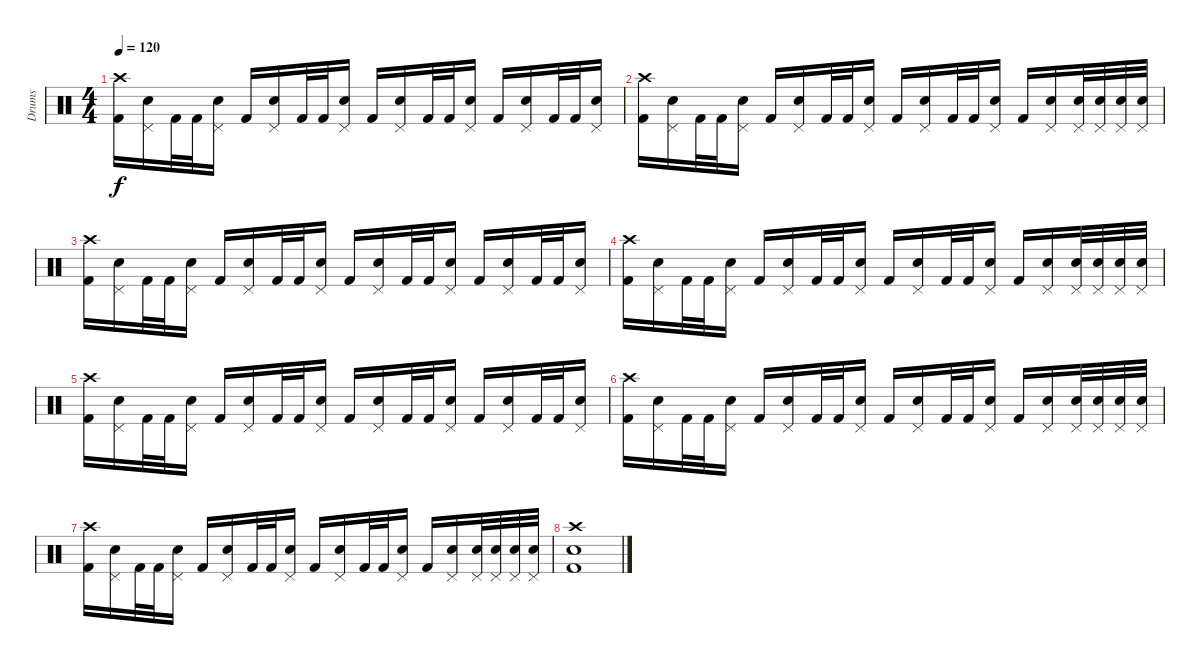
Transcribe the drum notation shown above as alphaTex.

\track ("Drums" "Drums") {instrument percussion}
\staff {score}
\articulation defaults
\ts (4 4)
\tempo 120
\clef neutral
\ks c
("Kick (hit) 2" "Crash high (hit)").16{dy f} ("Electric Snare (hit)" "Pedal Hi-Hat (hit)").16 "Kick (hit) 2".32 "Kick (hit) 2".32 ("Electric Snare (hit)" "Pedal Hi-Hat (hit)").16 "Kick (hit) 2".16 ("Electric Snare (hit)" "Pedal Hi-Hat (hit)").16 "Kick (hit) 2".32 "Kick (hit) 2".32 ("Electric Snare (hit)" "Pedal Hi-Hat (hit)").16 "Kick (hit) 2".16 ("Electric Snare (hit)" "Pedal Hi-Hat (hit)").16 "Kick (hit) 2".32 "Kick (hit) 2".32 ("Electric Snare (hit)" "Pedal Hi-Hat (hit)").16 "Kick (hit) 2".16 ("Electric Snare (hit)" "Pedal Hi-Hat (hit)").16 "Kick (hit) 2".32 "Kick (hit) 2".32 ("Electric Snare (hit)" "Pedal Hi-Hat (hit)").16 |
("Kick (hit) 2" "Crash high (hit)").16 ("Electric Snare (hit)" "Pedal Hi-Hat (hit)").16 "Kick (hit) 2".32 "Kick (hit) 2".32 ("Electric Snare (hit)" "Pedal Hi-Hat (hit)").16 "Kick (hit) 2".16 ("Electric Snare (hit)" "Pedal Hi-Hat (hit)").16 "Kick (hit) 2".32 "Kick (hit) 2".32 ("Electric Snare (hit)" "Pedal Hi-Hat (hit)").16 "Kick (hit) 2".16 ("Electric Snare (hit)" "Pedal Hi-Hat (hit)").16 "Kick (hit) 2".32 "Kick (hit) 2".32 ("Electric Snare (hit)" "Pedal Hi-Hat (hit)").16 "Kick (hit) 2".16 ("Electric Snare (hit)" "Pedal Hi-Hat (hit)").16 ("Electric Snare (hit)" "Pedal Hi-Hat (hit)").32 ("Electric Snare (hit)" "Pedal Hi-Hat (hit)").32 ("Electric Snare (hit)" "Pedal Hi-Hat (hit)").32 ("Electric Snare (hit)" "Pedal Hi-Hat (hit)").32 |
("Kick (hit) 2" "Crash high (hit)").16 ("Electric Snare (hit)" "Pedal Hi-Hat (hit)").16 "Kick (hit) 2".32 "Kick (hit) 2".32 ("Electric Snare (hit)" "Pedal Hi-Hat (hit)").16 "Kick (hit) 2".16 ("Electric Snare (hit)" "Pedal Hi-Hat (hit)").16 "Kick (hit) 2".32 "Kick (hit) 2".32 ("Electric Snare (hit)" "Pedal Hi-Hat (hit)").16 "Kick (hit) 2".16 ("Electric Snare (hit)" "Pedal Hi-Hat (hit)").16 "Kick (hit) 2".32 "Kick (hit) 2".32 ("Electric Snare (hit)" "Pedal Hi-Hat (hit)").16 "Kick (hit) 2".16 ("Electric Snare (hit)" "Pedal Hi-Hat (hit)").16 "Kick (hit) 2".32 "Kick (hit) 2".32 ("Electric Snare (hit)" "Pedal Hi-Hat (hit)").16 |
("Kick (hit) 2" "Crash high (hit)").16 ("Electric Snare (hit)" "Pedal Hi-Hat (hit)").16 "Kick (hit) 2".32 "Kick (hit) 2".32 ("Electric Snare (hit)" "Pedal Hi-Hat (hit)").16 "Kick (hit) 2".16 ("Electric Snare (hit)" "Pedal Hi-Hat (hit)").16 "Kick (hit) 2".32 "Kick (hit) 2".32 ("Electric Snare (hit)" "Pedal Hi-Hat (hit)").16 "Kick (hit) 2".16 ("Electric Snare (hit)" "Pedal Hi-Hat (hit)").16 "Kick (hit) 2".32 "Kick (hit) 2".32 ("Electric Snare (hit)" "Pedal Hi-Hat (hit)").16 "Kick (hit) 2".16 ("Electric Snare (hit)" "Pedal Hi-Hat (hit)").16 ("Electric Snare (hit)" "Pedal Hi-Hat (hit)").32 ("Electric Snare (hit)" "Pedal Hi-Hat (hit)").32 ("Electric Snare (hit)" "Pedal Hi-Hat (hit)").32 ("Electric Snare (hit)" "Pedal Hi-Hat (hit)").32 |
("Kick (hit) 2" "Crash high (hit)").16 ("Electric Snare (hit)" "Pedal Hi-Hat (hit)").16 "Kick (hit) 2".32 "Kick (hit) 2".32 ("Electric Snare (hit)" "Pedal Hi-Hat (hit)").16 "Kick (hit) 2".16 ("Electric Snare (hit)" "Pedal Hi-Hat (hit)").16 "Kick (hit) 2".32 "Kick (hit) 2".32 ("Electric Snare (hit)" "Pedal Hi-Hat (hit)").16 "Kick (hit) 2".16 ("Electric Snare (hit)" "Pedal Hi-Hat (hit)").16 "Kick (hit) 2".32 "Kick (hit) 2".32 ("Electric Snare (hit)" "Pedal Hi-Hat (hit)").16 "Kick (hit) 2".16 ("Electric Snare (hit)" "Pedal Hi-Hat (hit)").16 "Kick (hit) 2".32 "Kick (hit) 2".32 ("Electric Snare (hit)" "Pedal Hi-Hat (hit)").16 |
("Kick (hit) 2" "Crash high (hit)").16 ("Electric Snare (hit)" "Pedal Hi-Hat (hit)").16 "Kick (hit) 2".32 "Kick (hit) 2".32 ("Electric Snare (hit)" "Pedal Hi-Hat (hit)").16 "Kick (hit) 2".16 ("Electric Snare (hit)" "Pedal Hi-Hat (hit)").16 "Kick (hit) 2".32 "Kick (hit) 2".32 ("Electric Snare (hit)" "Pedal Hi-Hat (hit)").16 "Kick (hit) 2".16 ("Electric Snare (hit)" "Pedal Hi-Hat (hit)").16 "Kick (hit) 2".32 "Kick (hit) 2".32 ("Electric Snare (hit)" "Pedal Hi-Hat (hit)").16 "Kick (hit) 2".16 ("Electric Snare (hit)" "Pedal Hi-Hat (hit)").16 ("Electric Snare (hit)" "Pedal Hi-Hat (hit)").32 ("Electric Snare (hit)" "Pedal Hi-Hat (hit)").32 ("Electric Snare (hit)" "Pedal Hi-Hat (hit)").32 ("Electric Snare (hit)" "Pedal Hi-Hat (hit)").32 |
("Kick (hit) 2" "Crash high (hit)").16 ("Electric Snare (hit)" "Pedal Hi-Hat (hit)").16 "Kick (hit) 2".32 "Kick (hit) 2".32 ("Electric Snare (hit)" "Pedal Hi-Hat (hit)").16 "Kick (hit) 2".16 ("Electric Snare (hit)" "Pedal Hi-Hat (hit)").16 "Kick (hit) 2".32 "Kick (hit) 2".32 ("Electric Snare (hit)" "Pedal Hi-Hat (hit)").16 "Kick (hit) 2".16 ("Electric Snare (hit)" "Pedal Hi-Hat (hit)").16 "Kick (hit) 2".32 "Kick (hit) 2".32 ("Electric Snare (hit)" "Pedal Hi-Hat (hit)").16 "Kick (hit) 2".16 ("Electric Snare (hit)" "Pedal Hi-Hat (hit)").16 ("Electric Snare (hit)" "Pedal Hi-Hat (hit)").32 ("Electric Snare (hit)" "Pedal Hi-Hat (hit)").32 ("Electric Snare (hit)" "Pedal Hi-Hat (hit)").32 ("Electric Snare (hit)" "Pedal Hi-Hat (hit)").32 |
("Kick (hit) 2" "Electric Snare (hit)" "Crash high (hit)").1
